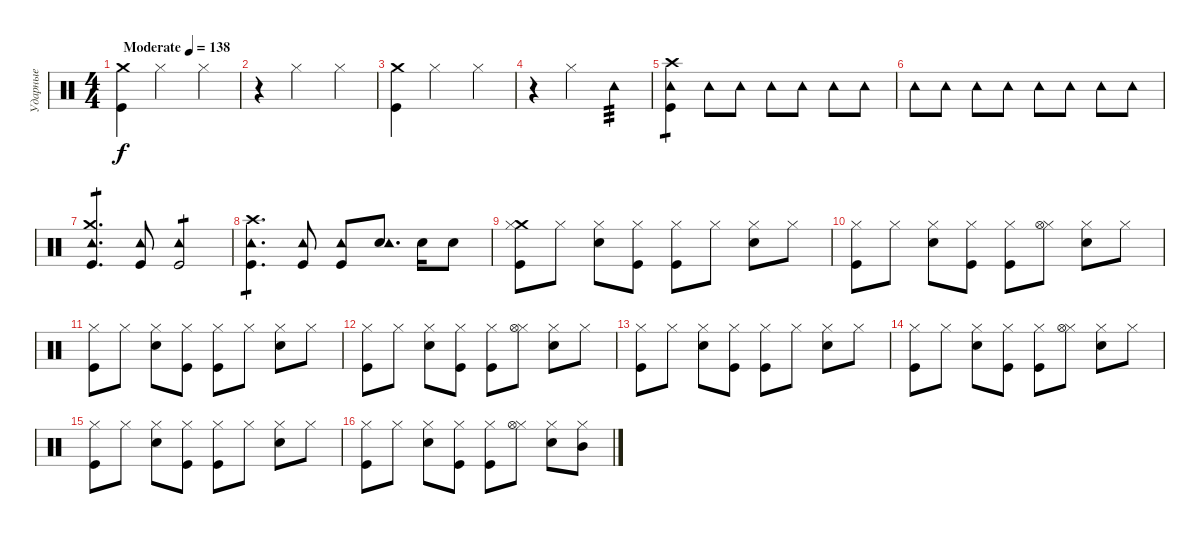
\track ("Ударные" "Ударные") {instrument percussion}
\staff {score}
\articulation defaults
\ts (4 4)
\tempo (138 "Moderate")
\clef neutral
\ks c
("Kick (hit)" "Crash medium (hit)").4{dy f} "Hi-Hat (closed)".2 "Hi-Hat (closed)".4 |
r.4 "Hi-Hat (closed)".2 "Hi-Hat (closed)".4 |
("Kick (hit)" "Crash medium (hit)").4 "Hi-Hat (closed)".2 "Hi-Hat (closed)".4 |
r.4 "Hi-Hat (closed)".2 "Tambourine (hit)".4{tp 3} |
("Kick (hit)" "Crash high (hit)" "Tambourine (hit)").4{tp 1} "Tambourine (hit)".8 "Tambourine (hit)".8 "Tambourine (hit)".8 "Tambourine (hit)".8 "Tambourine (hit)".8 "Tambourine (hit)".8 |
"Tambourine (hit)".8 "Tambourine (hit)".8 "Tambourine (hit)".8 "Tambourine (hit)".8 "Tambourine (hit)".8 "Tambourine (hit)".8 "Tambourine (hit)".8 "Tambourine (hit)".8 |
("Kick (hit)" "Crash medium (hit)" "Tambourine (hit)").4{d tp 1} ("Kick (hit)" "Tambourine (hit)").8 ("Kick (hit)" "Tambourine (hit)").2{tp 1} |
("Kick (hit)" "Crash high (hit)" "Tambourine (hit)").4{d tp 1} ("Kick (hit)" "Tambourine (hit)").8 ("Kick (hit)" "Tambourine (hit)").8 ("Snare (hit) 2" "Tambourine (hit)").8{d} "Snare (hit) 2".16 "Snare (hit) 2".8 |
("Crash medium (hit)" "Kick (hit)" "Hi-Hat (closed)").8 "Hi-Hat (closed)".8 ("Hi-Hat (closed)" "Snare (hit) 2").8 ("Hi-Hat (closed)" "Kick (hit)").8 ("Hi-Hat (closed)" "Kick (hit)").8 "Hi-Hat (closed)".8 ("Hi-Hat (closed)" "Snare (hit) 2").8 "Hi-Hat (closed)".8 |
("Hi-Hat (closed)" "Kick (hit)").8 "Hi-Hat (closed)".8 ("Hi-Hat (closed)" "Snare (hit) 2").8 ("Hi-Hat (closed)" "Kick (hit)").8 ("Hi-Hat (closed)" "Kick (hit)").8 ("Hi-Hat (closed)" "Hi-Hat (open)").8 ("Hi-Hat (closed)" "Snare (hit) 2").8 "Hi-Hat (closed)".8 |
("Hi-Hat (closed)" "Kick (hit)").8 "Hi-Hat (closed)".8 ("Hi-Hat (closed)" "Snare (hit) 2").8 ("Hi-Hat (closed)" "Kick (hit)").8 ("Hi-Hat (closed)" "Kick (hit)").8 "Hi-Hat (closed)".8 ("Hi-Hat (closed)" "Snare (hit) 2").8 "Hi-Hat (closed)".8 |
("Hi-Hat (closed)" "Kick (hit)").8 "Hi-Hat (closed)".8 ("Hi-Hat (closed)" "Snare (hit) 2").8 ("Hi-Hat (closed)" "Kick (hit)").8 ("Hi-Hat (closed)" "Kick (hit)").8 ("Hi-Hat (closed)" "Hi-Hat (open)").8 ("Hi-Hat (closed)" "Snare (hit) 2").8 "Hi-Hat (closed)".8 |
("Hi-Hat (closed)" "Kick (hit)").8 "Hi-Hat (closed)".8 ("Hi-Hat (closed)" "Snare (hit) 2").8 ("Hi-Hat (closed)" "Kick (hit)").8 ("Hi-Hat (closed)" "Kick (hit)").8 "Hi-Hat (closed)".8 ("Hi-Hat (closed)" "Snare (hit) 2").8 "Hi-Hat (closed)".8 |
("Hi-Hat (closed)" "Kick (hit)").8 "Hi-Hat (closed)".8 ("Hi-Hat (closed)" "Snare (hit) 2").8 ("Hi-Hat (closed)" "Kick (hit)").8 ("Hi-Hat (closed)" "Kick (hit)").8 ("Hi-Hat (closed)" "Hi-Hat (open)").8 ("Hi-Hat (closed)" "Snare (hit) 2").8 "Hi-Hat (closed)".8 |
("Hi-Hat (closed)" "Kick (hit)").8 "Hi-Hat (closed)".8 ("Hi-Hat (closed)" "Snare (hit) 2").8 ("Hi-Hat (closed)" "Kick (hit)").8 ("Hi-Hat (closed)" "Kick (hit)").8 "Hi-Hat (closed)".8 ("Hi-Hat (closed)" "Snare (hit) 2").8 "Hi-Hat (closed)".8 |
("Hi-Hat (closed)" "Kick (hit)").8 "Hi-Hat (closed)".8 ("Hi-Hat (closed)" "Snare (hit) 2").8 ("Hi-Hat (closed)" "Kick (hit)").8 ("Hi-Hat (closed)" "Kick (hit)").8 ("Hi-Hat (closed)" "Hi-Hat (open)").8 ("Hi-Hat (closed)" "Snare (hit) 2").8 ("Hi-Hat (closed)" "Mid Tom (hit)").8
